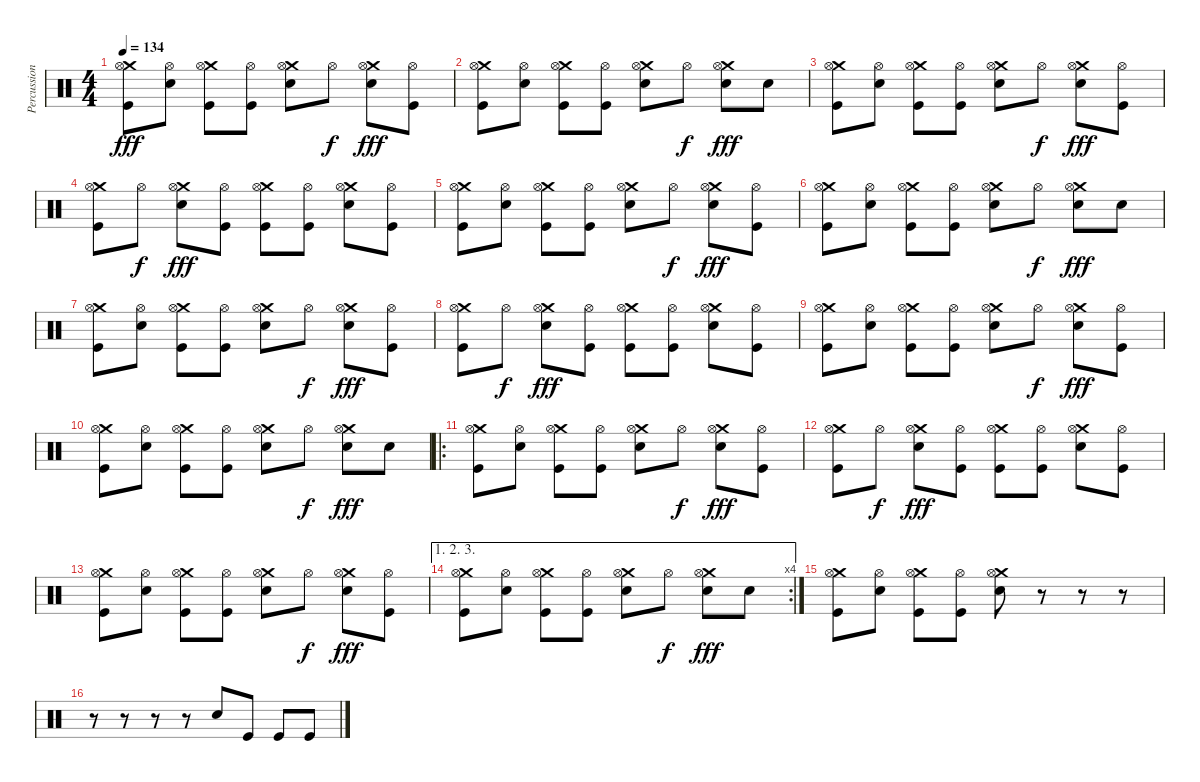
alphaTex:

\track ("Percussion" "Percussion") {instrument percussion}
\staff {score}
\articulation defaults
\ts (4 4)
\tempo 134
\clef neutral
\ks c
("Crash medium (hit)" "Kick (hit)" "Hi-Hat (open)").8{dy fff} ("Snare (hit) 2" "Hi-Hat (open)").8 ("Crash medium (hit)" "Kick (hit)" "Hi-Hat (open)").8 ("Kick (hit)" "Hi-Hat (open)").8 ("Crash medium (hit)" "Snare (hit) 2" "Hi-Hat (open)").8 "Hi-Hat (open)".8{dy f} ("Crash medium (hit)" "Snare (hit) 2" "Hi-Hat (open)").8{dy fff} ("Kick (hit)" "Hi-Hat (open)").8 |
("Crash medium (hit)" "Kick (hit)" "Hi-Hat (open)").8 ("Snare (hit) 2" "Hi-Hat (open)").8 ("Crash medium (hit)" "Kick (hit)" "Hi-Hat (open)").8 ("Kick (hit)" "Hi-Hat (open)").8 ("Crash medium (hit)" "Snare (hit) 2" "Hi-Hat (open)").8 "Hi-Hat (open)".8{dy f} ("Crash medium (hit)" "Snare (hit) 2" "Hi-Hat (open)").8{dy fff} "Snare (hit) 2".8 |
("Crash medium (hit)" "Kick (hit)" "Hi-Hat (open)").8{volume 15} ("Snare (hit) 2" "Hi-Hat (open)").8 ("Crash medium (hit)" "Kick (hit)" "Hi-Hat (open)").8 ("Kick (hit)" "Hi-Hat (open)").8 ("Crash medium (hit)" "Snare (hit) 2" "Hi-Hat (open)").8 "Hi-Hat (open)".8{dy f} ("Crash medium (hit)" "Snare (hit) 2" "Hi-Hat (open)").8{dy fff} ("Kick (hit)" "Hi-Hat (open)").8 |
("Crash medium (hit)" "Kick (hit)" "Hi-Hat (open)").8 "Hi-Hat (open)".8{dy f} ("Crash medium (hit)" "Snare (hit) 2" "Hi-Hat (open)").8{dy fff} ("Kick (hit)" "Hi-Hat (open)").8 ("Crash medium (hit)" "Kick (hit)" "Hi-Hat (open)").8 ("Kick (hit)" "Hi-Hat (open)").8 ("Crash medium (hit)" "Snare (hit) 2" "Hi-Hat (open)").8 ("Kick (hit)" "Hi-Hat (open)").8 |
("Crash medium (hit)" "Kick (hit)" "Hi-Hat (open)").8 ("Snare (hit) 2" "Hi-Hat (open)").8 ("Crash medium (hit)" "Kick (hit)" "Hi-Hat (open)").8 ("Kick (hit)" "Hi-Hat (open)").8 ("Crash medium (hit)" "Snare (hit) 2" "Hi-Hat (open)").8 "Hi-Hat (open)".8{dy f} ("Crash medium (hit)" "Snare (hit) 2" "Hi-Hat (open)").8{dy fff} ("Kick (hit)" "Hi-Hat (open)").8 |
("Crash medium (hit)" "Kick (hit)" "Hi-Hat (open)").8 ("Snare (hit) 2" "Hi-Hat (open)").8 ("Crash medium (hit)" "Kick (hit)" "Hi-Hat (open)").8 ("Kick (hit)" "Hi-Hat (open)").8 ("Crash medium (hit)" "Snare (hit) 2" "Hi-Hat (open)").8 "Hi-Hat (open)".8{dy f} ("Crash medium (hit)" "Snare (hit) 2" "Hi-Hat (open)").8{dy fff} "Snare (hit) 2".8 |
("Crash medium (hit)" "Kick (hit)" "Hi-Hat (open)").8{volume 15} ("Snare (hit) 2" "Hi-Hat (open)").8 ("Crash medium (hit)" "Kick (hit)" "Hi-Hat (open)").8 ("Kick (hit)" "Hi-Hat (open)").8 ("Crash medium (hit)" "Snare (hit) 2" "Hi-Hat (open)").8 "Hi-Hat (open)".8{dy f} ("Crash medium (hit)" "Snare (hit) 2" "Hi-Hat (open)").8{dy fff} ("Kick (hit)" "Hi-Hat (open)").8 |
("Crash medium (hit)" "Kick (hit)" "Hi-Hat (open)").8 "Hi-Hat (open)".8{dy f} ("Crash medium (hit)" "Snare (hit) 2" "Hi-Hat (open)").8{dy fff} ("Kick (hit)" "Hi-Hat (open)").8 ("Crash medium (hit)" "Kick (hit)" "Hi-Hat (open)").8 ("Kick (hit)" "Hi-Hat (open)").8 ("Crash medium (hit)" "Snare (hit) 2" "Hi-Hat (open)").8 ("Kick (hit)" "Hi-Hat (open)").8 |
("Crash medium (hit)" "Kick (hit)" "Hi-Hat (open)").8 ("Snare (hit) 2" "Hi-Hat (open)").8 ("Crash medium (hit)" "Kick (hit)" "Hi-Hat (open)").8 ("Kick (hit)" "Hi-Hat (open)").8 ("Crash medium (hit)" "Snare (hit) 2" "Hi-Hat (open)").8 "Hi-Hat (open)".8{dy f} ("Crash medium (hit)" "Snare (hit) 2" "Hi-Hat (open)").8{dy fff} ("Kick (hit)" "Hi-Hat (open)").8 |
("Crash medium (hit)" "Kick (hit)" "Hi-Hat (open)").8 ("Snare (hit) 2" "Hi-Hat (open)").8 ("Crash medium (hit)" "Kick (hit)" "Hi-Hat (open)").8 ("Kick (hit)" "Hi-Hat (open)").8 ("Crash medium (hit)" "Snare (hit) 2" "Hi-Hat (open)").8 "Hi-Hat (open)".8{dy f} ("Crash medium (hit)" "Snare (hit) 2" "Hi-Hat (open)").8{dy fff} "Snare (hit) 2".8 |
\ro
("Crash medium (hit)" "Kick (hit)" "Hi-Hat (open)").8{volume 15} ("Snare (hit) 2" "Hi-Hat (open)").8 ("Crash medium (hit)" "Kick (hit)" "Hi-Hat (open)").8 ("Kick (hit)" "Hi-Hat (open)").8 ("Crash medium (hit)" "Snare (hit) 2" "Hi-Hat (open)").8 "Hi-Hat (open)".8{dy f} ("Crash medium (hit)" "Snare (hit) 2" "Hi-Hat (open)").8{dy fff} ("Kick (hit)" "Hi-Hat (open)").8 |
("Crash medium (hit)" "Kick (hit)" "Hi-Hat (open)").8 "Hi-Hat (open)".8{dy f} ("Crash medium (hit)" "Snare (hit) 2" "Hi-Hat (open)").8{dy fff} ("Kick (hit)" "Hi-Hat (open)").8 ("Crash medium (hit)" "Kick (hit)" "Hi-Hat (open)").8 ("Kick (hit)" "Hi-Hat (open)").8 ("Crash medium (hit)" "Snare (hit) 2" "Hi-Hat (open)").8 ("Kick (hit)" "Hi-Hat (open)").8 |
("Crash medium (hit)" "Kick (hit)" "Hi-Hat (open)").8 ("Snare (hit) 2" "Hi-Hat (open)").8 ("Crash medium (hit)" "Kick (hit)" "Hi-Hat (open)").8 ("Kick (hit)" "Hi-Hat (open)").8 ("Crash medium (hit)" "Snare (hit) 2" "Hi-Hat (open)").8 "Hi-Hat (open)".8{dy f} ("Crash medium (hit)" "Snare (hit) 2" "Hi-Hat (open)").8{dy fff} ("Kick (hit)" "Hi-Hat (open)").8 |
\ae (1 2 3)
\rc 4
("Crash medium (hit)" "Kick (hit)" "Hi-Hat (open)").8 ("Snare (hit) 2" "Hi-Hat (open)").8 ("Crash medium (hit)" "Kick (hit)" "Hi-Hat (open)").8 ("Kick (hit)" "Hi-Hat (open)").8 ("Crash medium (hit)" "Snare (hit) 2" "Hi-Hat (open)").8 "Hi-Hat (open)".8{dy f} ("Crash medium (hit)" "Snare (hit) 2" "Hi-Hat (open)").8{dy fff} "Snare (hit) 2".8 |
("Crash medium (hit)" "Kick (hit)" "Hi-Hat (open)").8 ("Snare (hit) 2" "Hi-Hat (open)").8 ("Crash medium (hit)" "Kick (hit)" "Hi-Hat (open)").8 ("Kick (hit)" "Hi-Hat (open)").8 ("Crash medium (hit)" "Snare (hit) 2" "Hi-Hat (open)").8 r.8 r.8 r.8 |
r.8 r.8 r.8 r.8 "Snare (hit) 2".8 "Kick (hit)".8 "Kick (hit)".8 "Kick (hit)".8
